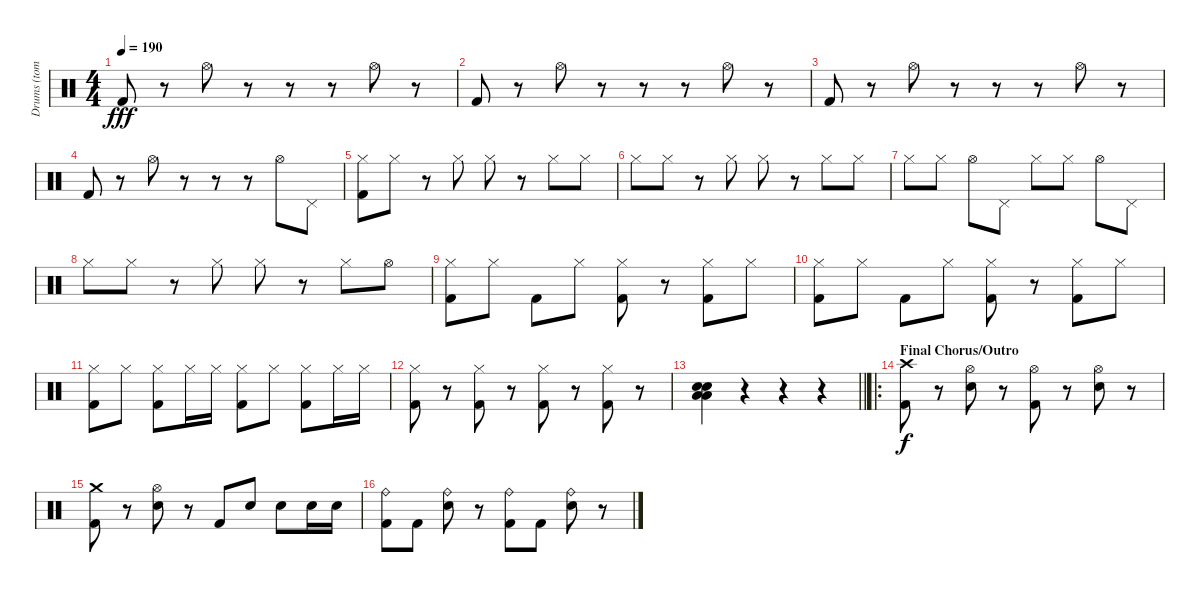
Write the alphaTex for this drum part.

\track ("Drums (tom)" "Drums (tom") {instrument percussion}
\staff {score}
\articulation defaults
\ts (4 4)
\tempo 190
\clef neutral
\ks c "Kick (hit) 2".8{dy fff}
r.8 "Hi-Hat (open)".8 r.8 r.8 r.8 "Hi-Hat (open)".8 r.8 |
"Kick (hit) 2".8 r.8 "Hi-Hat (open)".8 r.8 r.8 r.8 "Hi-Hat (open)".8 r.8 |
"Kick (hit) 2".8 r.8 "Hi-Hat (open)".8 r.8 r.8 r.8 "Hi-Hat (open)".8 r.8 |
"Kick (hit) 2".8 r.8 "Hi-Hat (open)".8 r.8 r.8 r.8 "Hi-Hat (open)".8 "Pedal Hi-Hat (hit)".8 |
("Hi-Hat (closed)" "Kick (hit) 2").8 "Hi-Hat (closed)".8 r.8 "Hi-Hat (closed)".8 "Hi-Hat (closed)".8 r.8 "Hi-Hat (closed)".8 "Hi-Hat (closed)".8 |
"Hi-Hat (closed)".8 "Hi-Hat (closed)".8 r.8 "Hi-Hat (closed)".8 "Hi-Hat (closed)".8 r.8 "Hi-Hat (closed)".8 "Hi-Hat (closed)".8 |
"Hi-Hat (closed)".8 "Hi-Hat (closed)".8 "Hi-Hat (open)".8 "Pedal Hi-Hat (hit)".8 "Hi-Hat (closed)".8 "Hi-Hat (closed)".8 "Hi-Hat (open)".8 "Pedal Hi-Hat (hit)".8 |
"Hi-Hat (closed)".8 "Hi-Hat (closed)".8 r.8 "Hi-Hat (closed)".8 "Hi-Hat (closed)".8 r.8 "Hi-Hat (closed)".8 "Hi-Hat (open)".8 |
("Hi-Hat (closed)" "Kick (hit) 2").8 "Hi-Hat (closed)".8 "Kick (hit) 2".8 "Hi-Hat (closed)".8 ("Hi-Hat (closed)" "Kick (hit) 2").8 r.8 ("Hi-Hat (closed)" "Kick (hit) 2").8 "Hi-Hat (closed)".8 |
("Hi-Hat (closed)" "Kick (hit) 2").8 "Hi-Hat (closed)".8 "Kick (hit) 2".8 "Hi-Hat (closed)".8 ("Hi-Hat (closed)" "Kick (hit) 2").8 r.8 ("Hi-Hat (closed)" "Kick (hit) 2").8 "Hi-Hat (closed)".8 |
("Hi-Hat (closed)" "Kick (hit) 2").8 "Hi-Hat (closed)".8 ("Hi-Hat (closed)" "Kick (hit) 2").8 "Hi-Hat (closed)".16 "Hi-Hat (closed)".16 ("Hi-Hat (closed)" "Kick (hit) 2").8 "Hi-Hat (closed)".8 ("Hi-Hat (closed)" "Kick (hit) 2").8 "Hi-Hat (closed)".16 "Hi-Hat (closed)".16 |
("Hi-Hat (closed)" "Kick (hit) 2").8 r.8 ("Hi-Hat (closed)" "Kick (hit) 2").8 r.8 ("Hi-Hat (closed)" "Kick (hit) 2").8 r.8 ("Hi-Hat (closed)" "Kick (hit) 2").8 r.8 |
\barLineRight lightlight
("Low Floor Tom (hit)" "Low Floor Tom (hit)" "Electric Snare (hit)" "Electric Snare (hit)").4 r.4 r.4 r.4 |
\ro
\section ("" "Final Chorus/Outro")
("Crash high (hit)" "Kick (hit) 2").8{dy f} r.8 ("Hi-Hat (open)" "Electric Snare (hit)").8 r.8 ("Hi-Hat (open)" "Kick (hit) 2").8 r.8 ("Hi-Hat (open)" "Electric Snare (hit)").8 r.8 |
("Crash medium (hit)" "Kick (hit) 2").8 r.8 ("Hi-Hat (open)" "Electric Snare (hit)").8 r.8 "Kick (hit) 2".8 "Electric Snare (hit)".8 "Electric Snare (hit)".8 "Electric Snare (hit)".16 "Electric Snare (hit)".16 |
("Ride (bell)" "Kick (hit) 2").8 "Kick (hit) 2".8 ("Ride (bell)" "Electric Snare (hit)").8 r.8 ("Ride (bell)" "Kick (hit) 2").8 "Kick (hit) 2".8 ("Ride (bell)" "Electric Snare (hit)").8 r.8
